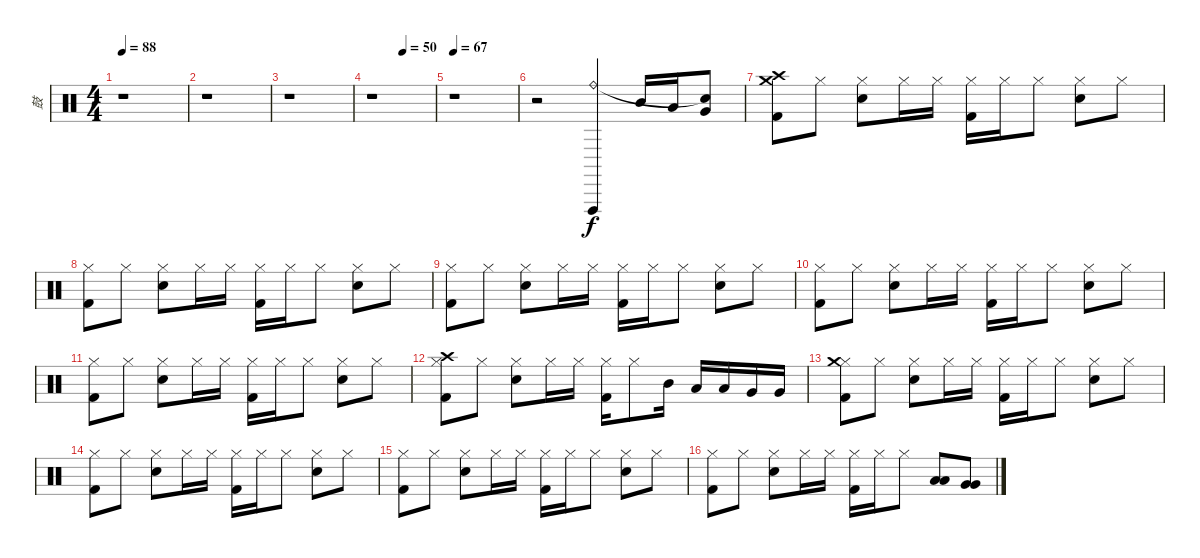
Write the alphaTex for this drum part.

\track ("鼓" "鼓") {instrument percussion}
\staff {score}
\articulation defaults
\ts (4 4)
\tempo 88
\clef neutral
\ks c
r.1{dy f} |
r.1 |
r.1 |
\tempo (50 0.5)
r.1 |
\tempo 67
r.1 |
r.2 ("Vibraslap (hit)" "Ride (bell)").4 "Mid Tom (hit)".16 "Low Tom (hit)".16 ("Very Low Tom (hit)" "Snare (hit)"{t}).8 |
("Crash high (hit)" "Crash medium (hit)" "Kick (hit) 2").8 "Hi-Hat (closed)".8 ("Hi-Hat (closed)" "Snare (hit) 2").8 "Hi-Hat (closed)".16 "Hi-Hat (closed)".16 ("Hi-Hat (closed)" "Kick (hit) 2").16 "Hi-Hat (closed)".16 "Hi-Hat (closed)".8 ("Hi-Hat (closed)" "Snare (hit) 2").8 "Hi-Hat (closed)".8 |
("Hi-Hat (closed)" "Kick (hit) 2").8 "Hi-Hat (closed)".8 ("Hi-Hat (closed)" "Snare (hit) 2").8 "Hi-Hat (closed)".16 "Hi-Hat (closed)".16 ("Hi-Hat (closed)" "Kick (hit) 2").16 "Hi-Hat (closed)".16 "Hi-Hat (closed)".8 ("Hi-Hat (closed)" "Snare (hit) 2").8 "Hi-Hat (closed)".8 |
("Hi-Hat (closed)" "Kick (hit) 2").8 "Hi-Hat (closed)".8 ("Hi-Hat (closed)" "Snare (hit) 2").8 "Hi-Hat (closed)".16 "Hi-Hat (closed)".16 ("Hi-Hat (closed)" "Kick (hit) 2").16 "Hi-Hat (closed)".16 "Hi-Hat (closed)".8 ("Hi-Hat (closed)" "Snare (hit) 2").8 "Hi-Hat (closed)".8 |
("Hi-Hat (closed)" "Kick (hit) 2").8 "Hi-Hat (closed)".8 ("Hi-Hat (closed)" "Snare (hit) 2").8 "Hi-Hat (closed)".16 "Hi-Hat (closed)".16 ("Hi-Hat (closed)" "Kick (hit) 2").16 "Hi-Hat (closed)".16 "Hi-Hat (closed)".8 ("Hi-Hat (closed)" "Snare (hit) 2").8 "Hi-Hat (closed)".8 |
("Hi-Hat (closed)" "Kick (hit) 2").8 "Hi-Hat (closed)".8 ("Hi-Hat (closed)" "Snare (hit) 2").8 "Hi-Hat (closed)".16 "Hi-Hat (closed)".16 ("Hi-Hat (closed)" "Kick (hit) 2").16 "Hi-Hat (closed)".16 "Hi-Hat (closed)".8 ("Hi-Hat (closed)" "Snare (hit) 2").8 "Hi-Hat (closed)".8 |
("Hi-Hat (closed)" "Crash high (hit)" "Kick (hit) 2").8 "Hi-Hat (closed)".8 ("Hi-Hat (closed)" "Snare (hit) 2").8 "Hi-Hat (closed)".16 "Hi-Hat (closed)".16 ("Hi-Hat (closed)" "Kick (hit) 2").16 "Hi-Hat (closed)".8 "Mid Tom (hit)".16 "Low Tom (hit)".16 "Low Tom (hit)".16 "Very Low Tom (hit)".16 "Very Low Tom (hit)".16 |
("Hi-Hat (closed)" "Crash medium (hit)" "Kick (hit) 2").8 "Hi-Hat (closed)".8 ("Hi-Hat (closed)" "Snare (hit) 2").8 "Hi-Hat (closed)".16 "Hi-Hat (closed)".16 ("Hi-Hat (closed)" "Kick (hit) 2").16 "Hi-Hat (closed)".16 "Hi-Hat (closed)".8 ("Hi-Hat (closed)" "Snare (hit) 2").8 "Hi-Hat (closed)".8 |
("Hi-Hat (closed)" "Kick (hit) 2").8 "Hi-Hat (closed)".8 ("Hi-Hat (closed)" "Snare (hit) 2").8 "Hi-Hat (closed)".16 "Hi-Hat (closed)".16 ("Hi-Hat (closed)" "Kick (hit) 2").16 "Hi-Hat (closed)".16 "Hi-Hat (closed)".8 ("Hi-Hat (closed)" "Snare (hit) 2").8 "Hi-Hat (closed)".8 |
("Hi-Hat (closed)" "Kick (hit) 2").8 "Hi-Hat (closed)".8 ("Hi-Hat (closed)" "Snare (hit) 2").8 "Hi-Hat (closed)".16 "Hi-Hat (closed)".16 ("Hi-Hat (closed)" "Kick (hit) 2").16 "Hi-Hat (closed)".16 "Hi-Hat (closed)".8 ("Hi-Hat (closed)" "Snare (hit) 2").8 "Hi-Hat (closed)".8 |
("Hi-Hat (closed)" "Kick (hit) 2").8 "Hi-Hat (closed)".8 ("Hi-Hat (closed)" "Snare (hit) 2").8 "Hi-Hat (closed)".16 "Hi-Hat (closed)".16 ("Hi-Hat (closed)" "Kick (hit) 2").16 "Hi-Hat (closed)".16 "Hi-Hat (closed)".8 ("Low Tom (hit)" "Low Tom (hit)").8{bd 60} ("Very Low Tom (hit)" "Very Low Tom (hit)").8{bd 60}
